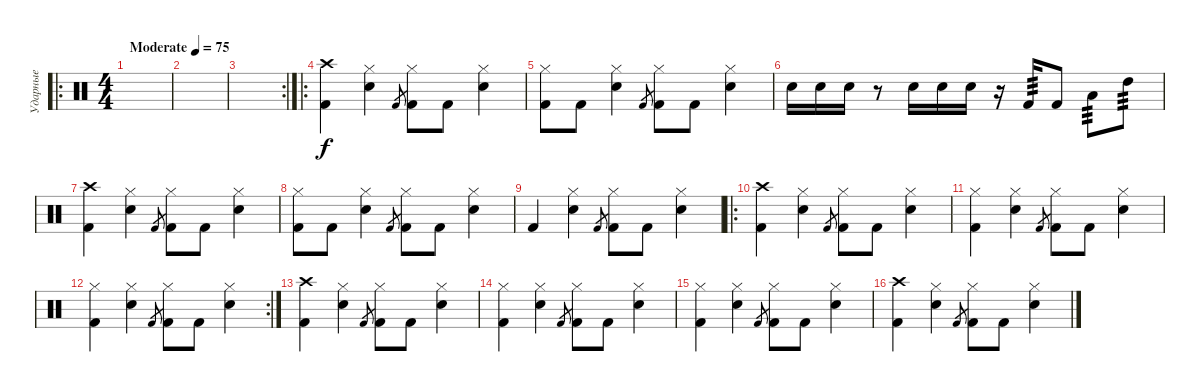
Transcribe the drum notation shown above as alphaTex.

\track ("Ударные" "Ударные") {instrument percussion}
\staff {score}
\articulation defaults
\ro
\ts (4 4)
\tempo (75 "Moderate")
\clef neutral
\ks c
|
|
\rc 2
|
\ro
("Crash high (hit)" "Kick (hit) 2").4 ("Hi-Hat (closed)" "Electric Snare (hit)").4 "Kick (hit) 2".8{gr} ("Hi-Hat (closed)" "Kick (hit) 2").8 "Kick (hit) 2".8 ("Hi-Hat (closed)" "Electric Snare (hit)").4 |
("Hi-Hat (closed)" "Kick (hit) 2").8 "Kick (hit) 2".8 ("Hi-Hat (closed)" "Electric Snare (hit)").4 "Kick (hit) 2".8{gr} ("Hi-Hat (closed)" "Kick (hit) 2").8 "Kick (hit) 2".8 ("Hi-Hat (closed)" "Electric Snare (hit)").4 |
"Electric Snare (hit)".16 "Electric Snare (hit)".16 "Electric Snare (hit)".16 r.8 "Electric Snare (hit)".16 "Electric Snare (hit)".16 "Electric Snare (hit)".16 r.16 "Kick (hit) 2".16{tp 3} "Kick (hit) 2".8 "Low Floor Tom (hit)".8{tp 3} "High Tom (hit)".8{tp 3} |
("Crash high (hit)" "Kick (hit) 2").4 ("Hi-Hat (closed)" "Electric Snare (hit)").4 "Kick (hit) 2".8{gr} ("Hi-Hat (closed)" "Kick (hit) 2").8 "Kick (hit) 2".8 ("Hi-Hat (closed)" "Electric Snare (hit)").4 |
("Hi-Hat (closed)" "Kick (hit) 2").8 "Kick (hit) 2".8 ("Hi-Hat (closed)" "Electric Snare (hit)").4 "Kick (hit) 2".8{gr} ("Hi-Hat (closed)" "Kick (hit) 2").8 "Kick (hit) 2".8 ("Hi-Hat (closed)" "Electric Snare (hit)").4 |
"Kick (hit) 2".4 ("Hi-Hat (closed)" "Electric Snare (hit)").4 "Kick (hit) 2".8{gr} ("Hi-Hat (closed)" "Kick (hit) 2").8 "Kick (hit) 2".8 ("Hi-Hat (closed)" "Electric Snare (hit)").4 |
\ro
("Crash high (hit)" "Kick (hit) 2").4 ("Hi-Hat (closed)" "Electric Snare (hit)").4 "Kick (hit) 2".8{gr} ("Hi-Hat (closed)" "Kick (hit) 2").8 "Kick (hit) 2".8 ("Hi-Hat (closed)" "Electric Snare (hit)").4 |
("Hi-Hat (closed)" "Kick (hit) 2").4 ("Hi-Hat (closed)" "Electric Snare (hit)").4 "Kick (hit) 2".8{gr} ("Hi-Hat (closed)" "Kick (hit) 2").8 "Kick (hit) 2".8 ("Hi-Hat (closed)" "Electric Snare (hit)").4 |
\rc 2
("Hi-Hat (closed)" "Kick (hit) 2").4 ("Hi-Hat (closed)" "Electric Snare (hit)").4 "Kick (hit) 2".8{gr} ("Hi-Hat (closed)" "Kick (hit) 2").8 "Kick (hit) 2".8 ("Hi-Hat (closed)" "Electric Snare (hit)").4 |
("Crash high (hit)" "Kick (hit) 2").4 ("Hi-Hat (closed)" "Electric Snare (hit)").4 "Kick (hit) 2".8{gr} ("Hi-Hat (closed)" "Kick (hit) 2").8 "Kick (hit) 2".8 ("Hi-Hat (closed)" "Electric Snare (hit)").4 |
("Hi-Hat (closed)" "Kick (hit) 2").4 ("Hi-Hat (closed)" "Electric Snare (hit)").4 "Kick (hit) 2".8{gr} ("Hi-Hat (closed)" "Kick (hit) 2").8 "Kick (hit) 2".8 ("Hi-Hat (closed)" "Electric Snare (hit)").4 |
("Hi-Hat (closed)" "Kick (hit) 2").4 ("Hi-Hat (closed)" "Electric Snare (hit)").4 "Kick (hit) 2".8{gr} ("Hi-Hat (closed)" "Kick (hit) 2").8 "Kick (hit) 2".8 ("Hi-Hat (closed)" "Electric Snare (hit)").4 |
("Crash high (hit)" "Kick (hit) 2").4 ("Hi-Hat (closed)" "Electric Snare (hit)").4 "Kick (hit) 2".8{gr} ("Hi-Hat (closed)" "Kick (hit) 2").8 "Kick (hit) 2".8 ("Hi-Hat (closed)" "Electric Snare (hit)").4
